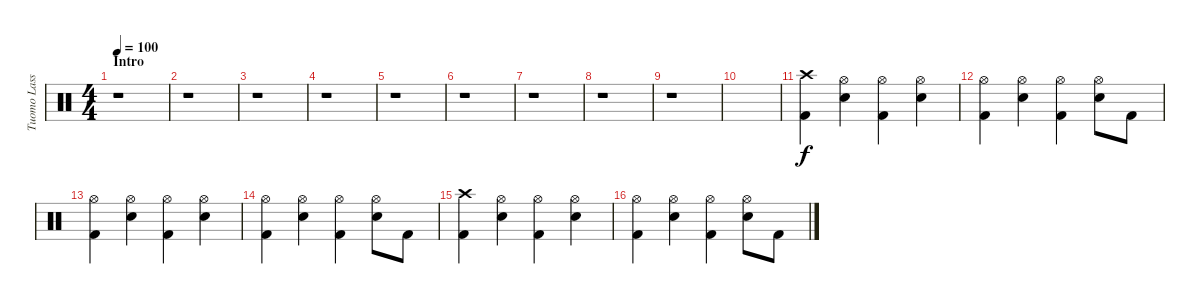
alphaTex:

\track ("Tuomo Lassila" "Tuomo Lass") {instrument percussion}
\staff {score}
\articulation defaults
\ts (4 4)
\section ("" "Intro")
\tempo 100
\clef neutral
\ks c
r.1{dy f} |
r.1 |
r.1 |
r.1 |
r.1 |
r.1 |
r.1 |
r.1 |
r.1 |
|
("Crash high (hit)" "Kick (hit) 2").4 ("Hi-Hat (open)" "Electric Snare (hit)").4 ("Hi-Hat (open)" "Kick (hit) 2").4 ("Hi-Hat (open)" "Electric Snare (hit)").4 |
("Hi-Hat (open)" "Kick (hit) 2").4 ("Hi-Hat (open)" "Electric Snare (hit)").4 ("Hi-Hat (open)" "Kick (hit) 2").4 ("Hi-Hat (open)" "Electric Snare (hit)").8 "Kick (hit) 2".8 |
("Hi-Hat (open)" "Kick (hit) 2").4 ("Hi-Hat (open)" "Electric Snare (hit)").4 ("Hi-Hat (open)" "Kick (hit) 2").4 ("Hi-Hat (open)" "Electric Snare (hit)").4 |
("Hi-Hat (open)" "Kick (hit) 2").4 ("Hi-Hat (open)" "Electric Snare (hit)").4 ("Hi-Hat (open)" "Kick (hit) 2").4 ("Hi-Hat (open)" "Electric Snare (hit)").8 "Kick (hit) 2".8 |
("Crash high (hit)" "Kick (hit) 2").4 ("Hi-Hat (open)" "Electric Snare (hit)").4 ("Hi-Hat (open)" "Kick (hit) 2").4 ("Hi-Hat (open)" "Electric Snare (hit)").4 |
("Hi-Hat (open)" "Kick (hit) 2").4 ("Hi-Hat (open)" "Electric Snare (hit)").4 ("Hi-Hat (open)" "Kick (hit) 2").4 ("Hi-Hat (open)" "Electric Snare (hit)").8 "Kick (hit) 2".8
